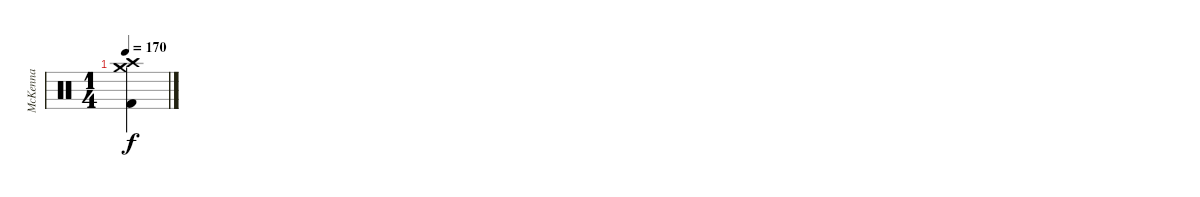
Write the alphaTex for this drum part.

\track ("McKenna" "McKenna") {instrument percussion}
\staff {score}
\articulation defaults
\ts (1 4)
\tempo 170
\clef neutral
\ks c
("Crash medium (hit)" "Crash high (hit)" "Kick (hit) 2").4{dy f}
